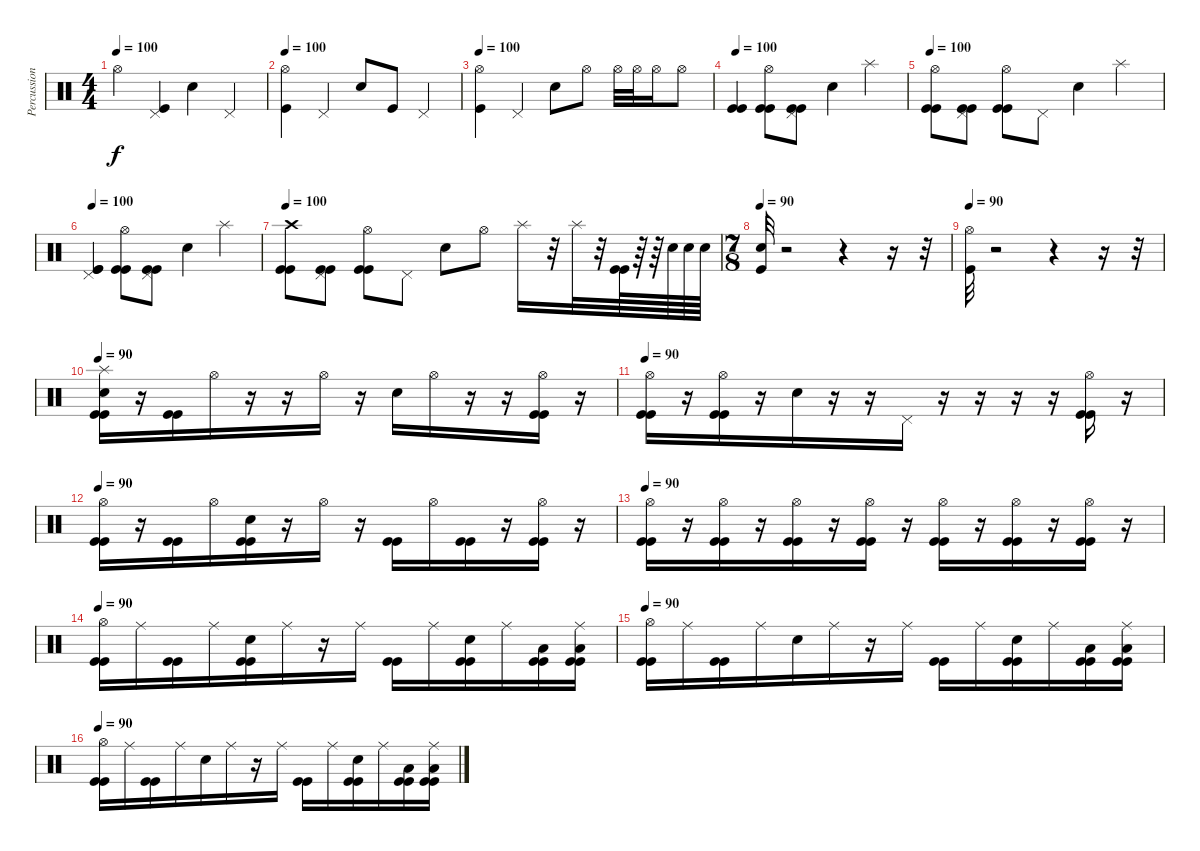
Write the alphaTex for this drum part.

\track ("Percussions" "Percussion") {instrument percussion}
\staff {score}
\articulation defaults
\ts (4 4)
\tempo 100
\clef neutral
\ks c "Hi-Hat (open)".4{dy f}
("Pedal Hi-Hat (hit)" "Kick (hit)").4 "Electric Snare (hit)".4 "Pedal Hi-Hat (hit)".4 |
\tempo 100
("Hi-Hat (open)" "Kick (hit)").4 "Pedal Hi-Hat (hit)".4 "Electric Snare (hit)".8 "Kick (hit)".8 "Pedal Hi-Hat (hit)".4 |
\tempo 100
("Hi-Hat (open)" "Kick (hit)").4 "Pedal Hi-Hat (hit)".4 "Electric Snare (hit)".8 "Hi-Hat (open)".8 "Hi-Hat (open)".32 "Hi-Hat (open)".32 "Hi-Hat (open)".16 "Hi-Hat (open)".8 |
\tempo 100
("Kick (hit)" "Kick (hit)").4 ("Hi-Hat (open)" "Kick (hit)" "Kick (hit)").8 ("Pedal Hi-Hat (hit)" "Kick (hit)" "Kick (hit)").8 "Electric Snare (hit)".4 "Splash (hit)".4 |
\tempo 100
("Hi-Hat (open)" "Kick (hit)" "Kick (hit)").8 ("Pedal Hi-Hat (hit)" "Kick (hit)" "Kick (hit)").8 ("Hi-Hat (open)" "Kick (hit)" "Kick (hit)").8 "Pedal Hi-Hat (hit)".8 "Electric Snare (hit)".4 "Splash (hit)".4 |
\tempo 100
("Pedal Hi-Hat (hit)" "Kick (hit)" "Kick (hit)").4 ("Hi-Hat (open)" "Kick (hit)" "Kick (hit)").8 ("Pedal Hi-Hat (hit)" "Kick (hit)" "Kick (hit)").8 "Electric Snare (hit)".4 "Splash (hit)".4 |
\tempo 100
("Crash high (hit)" "Kick (hit)" "Kick (hit)").8 ("Pedal Hi-Hat (hit)" "Kick (hit)" "Kick (hit)").8 ("Hi-Hat (open)" "Kick (hit)" "Kick (hit)").8 "Pedal Hi-Hat (hit)".8 "Electric Snare (hit)".8 "Hi-Hat (open)".8 "Splash (hit)".16 r.32 "Splash (hit)".32 r.32 ("Kick (hit)" "Kick (hit)").64 r.64 r.64 "Electric Snare (hit)".64 "Electric Snare (hit)".64 "Electric Snare (hit)".64 |
\ts (7 8)
\tempo 90
("Electric Snare (hit)" "Kick (hit)").32 r.2 r.4 r.16 r.32 |
\tempo 90
("Hi-Hat (open)" "Kick (hit)").32 r.2 r.4 r.16 r.32 |
\tempo 90
("Splash (hit)" "Electric Snare (hit)" "Kick (hit)" "Kick (hit)").16 r.16 ("Kick (hit)" "Kick (hit)").16 "Hi-Hat (open)".16 r.16 r.16 "Hi-Hat (open)".16 r.16 "Electric Snare (hit)".16 "Hi-Hat (open)".16 r.16 r.16 ("Hi-Hat (open)" "Kick (hit)" "Kick (hit)").16 r.16 |
\tempo 90
("Hi-Hat (open)" "Kick (hit)" "Kick (hit)").16 r.16 ("Hi-Hat (open)" "Kick (hit)" "Kick (hit)").16 r.16 "Electric Snare (hit)".16 r.16 r.16 "Pedal Hi-Hat (hit)".16 r.16 r.16 r.16 r.16 ("Hi-Hat (open)" "Kick (hit)" "Kick (hit)").16 r.16 |
\tempo 90
("Hi-Hat (open)" "Kick (hit)" "Kick (hit)").16 r.16 ("Kick (hit)" "Kick (hit)").16 "Hi-Hat (open)".16 ("Electric Snare (hit)" "Kick (hit)" "Kick (hit)").16 r.16 "Hi-Hat (open)".16 r.16 ("Kick (hit)" "Kick (hit)").16 "Hi-Hat (open)".16 ("Kick (hit)" "Kick (hit)").16 r.16 ("Hi-Hat (open)" "Kick (hit)" "Kick (hit)").16 r.16 |
\tempo 90
("Hi-Hat (open)" "Kick (hit)" "Kick (hit)").16 r.16 ("Hi-Hat (open)" "Kick (hit)" "Kick (hit)").16 r.16 ("Hi-Hat (open)" "Kick (hit)" "Kick (hit)").16 r.16 ("Hi-Hat (open)" "Kick (hit)" "Kick (hit)").16 r.16 ("Hi-Hat (open)" "Kick (hit)" "Kick (hit)").16 r.16 ("Hi-Hat (open)" "Kick (hit)" "Kick (hit)").16 r.16 ("Hi-Hat (open)" "Kick (hit)" "Kick (hit)").16 r.16 |
\tempo 90
("Hi-Hat (open)" "Kick (hit)" "Kick (hit)").16 "Ride (middle)".16 ("Kick (hit)" "Kick (hit)").16 "Ride (middle)".16 ("Electric Snare (hit)" "Kick (hit)" "Kick (hit)").16 "Ride (middle)".16 r.16 "Ride (middle)".16 ("Kick (hit)" "Kick (hit)").16 "Ride (middle)".16 ("Electric Snare (hit)" "Kick (hit)" "Kick (hit)").16 "Ride (middle)".16 ("Low Floor Tom (hit)" "Kick (hit)" "Kick (hit)").16 ("Ride (middle)" "Low Floor Tom (hit)" "Kick (hit)" "Kick (hit)").16 |
\tempo 90
("Hi-Hat (open)" "Kick (hit)" "Kick (hit)").16 "Ride (middle)".16 ("Kick (hit)" "Kick (hit)").16 "Ride (middle)".16 "Electric Snare (hit)".16 "Ride (middle)".16 r.16 "Ride (middle)".16 ("Kick (hit)" "Kick (hit)").16 "Ride (middle)".16 ("Electric Snare (hit)" "Kick (hit)" "Kick (hit)").16 "Ride (middle)".16 ("Low Floor Tom (hit)" "Kick (hit)" "Kick (hit)").16 ("Ride (middle)" "Low Floor Tom (hit)" "Kick (hit)" "Kick (hit)").16 |
\tempo 90
("Hi-Hat (open)" "Kick (hit)" "Kick (hit)").16 "Ride (middle)".16 ("Kick (hit)" "Kick (hit)").16 "Ride (middle)".16 "Electric Snare (hit)".16 "Ride (middle)".16 r.16 "Ride (middle)".16 ("Kick (hit)" "Kick (hit)").16 "Ride (middle)".16 ("Electric Snare (hit)" "Kick (hit)" "Kick (hit)").16 "Ride (middle)".16 ("Low Floor Tom (hit)" "Kick (hit)" "Kick (hit)").16 ("Ride (middle)" "Low Floor Tom (hit)" "Kick (hit)" "Kick (hit)").16
